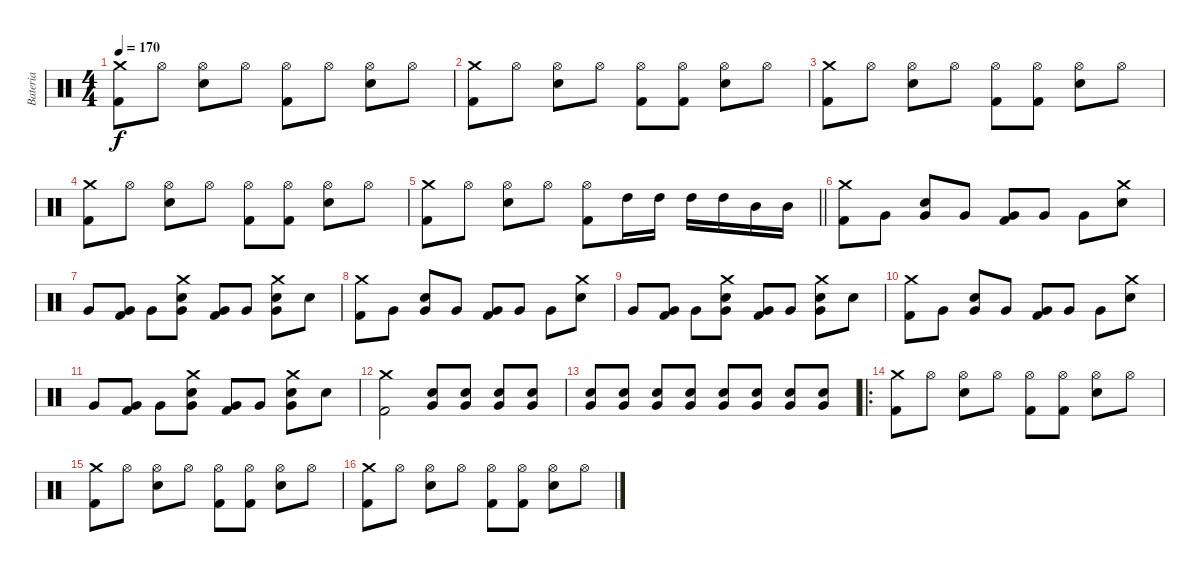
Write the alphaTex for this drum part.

\track ("Bateria" "Bateria") {instrument percussion}
\staff {score}
\articulation defaults
\ts (4 4)
\tempo 170
\clef neutral
\ks c
("Crash medium (hit)" "Kick (hit) 2").8{dy f} "Hi-Hat (open)".8 ("Hi-Hat (open)" "Snare (hit) 2").8 "Hi-Hat (open)".8 ("Hi-Hat (open)" "Kick (hit) 2").8 "Hi-Hat (open)".8 ("Hi-Hat (open)" "Snare (hit) 2").8 "Hi-Hat (open)".8 |
("Crash medium (hit)" "Kick (hit) 2").8 "Hi-Hat (open)".8 ("Hi-Hat (open)" "Snare (hit) 2").8 "Hi-Hat (open)".8 ("Hi-Hat (open)" "Kick (hit) 2").8 ("Hi-Hat (open)" "Kick (hit) 2").8 ("Hi-Hat (open)" "Snare (hit) 2").8 "Hi-Hat (open)".8 |
("Crash medium (hit)" "Kick (hit) 2").8 "Hi-Hat (open)".8 ("Hi-Hat (open)" "Snare (hit) 2").8 "Hi-Hat (open)".8 ("Hi-Hat (open)" "Kick (hit) 2").8 ("Hi-Hat (open)" "Kick (hit) 2").8 ("Hi-Hat (open)" "Snare (hit) 2").8 "Hi-Hat (open)".8 |
("Crash medium (hit)" "Kick (hit) 2").8 "Hi-Hat (open)".8 ("Hi-Hat (open)" "Snare (hit) 2").8 "Hi-Hat (open)".8 ("Hi-Hat (open)" "Kick (hit) 2").8 ("Hi-Hat (open)" "Kick (hit) 2").8 ("Hi-Hat (open)" "Snare (hit) 2").8 "Hi-Hat (open)".8 |
\barLineRight lightlight
("Crash medium (hit)" "Kick (hit) 2").8 "Hi-Hat (open)".8 ("Hi-Hat (open)" "Snare (hit) 2").8 "Hi-Hat (open)".8 ("Hi-Hat (open)" "Kick (hit) 2").8 "High Tom (hit)".16 "High Tom (hit)".16 "High Tom (hit)".16 "High Tom (hit)".16 "Mid Tom (hit)".16 "Mid Tom (hit)".16 |
("Crash medium (hit)" "Kick (hit) 2").8 "Very Low Tom (hit)".8 ("Very Low Tom (hit)" "Snare (hit) 2").8 "Very Low Tom (hit)".8 ("Very Low Tom (hit)" "Kick (hit) 2").8 "Very Low Tom (hit)".8 "Very Low Tom (hit)".8 ("Crash medium (hit)" "Snare (hit) 2").8 |
"Very Low Tom (hit)".8 ("Very Low Tom (hit)" "Kick (hit) 2").8 "Very Low Tom (hit)".8 ("Crash medium (hit)" "Very Low Tom (hit)" "Snare (hit) 2").8 ("Very Low Tom (hit)" "Kick (hit) 2").8 "Very Low Tom (hit)".8 ("Crash medium (hit)" "Very Low Tom (hit)" "Snare (hit) 2").8 "Snare (hit) 2".8 |
("Crash medium (hit)" "Kick (hit) 2").8 "Very Low Tom (hit)".8 ("Very Low Tom (hit)" "Snare (hit) 2").8 "Very Low Tom (hit)".8 ("Very Low Tom (hit)" "Kick (hit) 2").8 "Very Low Tom (hit)".8 "Very Low Tom (hit)".8 ("Crash medium (hit)" "Snare (hit) 2").8 |
"Very Low Tom (hit)".8 ("Very Low Tom (hit)" "Kick (hit) 2").8 "Very Low Tom (hit)".8 ("Crash medium (hit)" "Very Low Tom (hit)" "Snare (hit) 2").8 ("Very Low Tom (hit)" "Kick (hit) 2").8 "Very Low Tom (hit)".8 ("Crash medium (hit)" "Very Low Tom (hit)" "Snare (hit) 2").8 "Snare (hit) 2".8 |
("Crash medium (hit)" "Kick (hit) 2").8 "Very Low Tom (hit)".8 ("Very Low Tom (hit)" "Snare (hit) 2").8 "Very Low Tom (hit)".8 ("Very Low Tom (hit)" "Kick (hit) 2").8 "Very Low Tom (hit)".8 "Very Low Tom (hit)".8 ("Crash medium (hit)" "Snare (hit) 2").8 |
"Very Low Tom (hit)".8 ("Very Low Tom (hit)" "Kick (hit) 2").8 "Very Low Tom (hit)".8 ("Crash medium (hit)" "Very Low Tom (hit)" "Snare (hit) 2").8 ("Very Low Tom (hit)" "Kick (hit) 2").8 "Very Low Tom (hit)".8 ("Crash medium (hit)" "Very Low Tom (hit)" "Snare (hit) 2").8 "Snare (hit) 2".8 |
("Crash medium (hit)" "Kick (hit) 2").2 ("Very Low Tom (hit)" "Snare (hit) 2").8{volume 5} ("Very Low Tom (hit)" "Snare (hit) 2").8{volume 16} ("Very Low Tom (hit)" "Snare (hit) 2").8 ("Very Low Tom (hit)" "Snare (hit) 2").8 |
("Very Low Tom (hit)" "Snare (hit) 2").8 ("Very Low Tom (hit)" "Snare (hit) 2").8 ("Very Low Tom (hit)" "Snare (hit) 2").8 ("Very Low Tom (hit)" "Snare (hit) 2").8 ("Very Low Tom (hit)" "Snare (hit) 2").8 ("Very Low Tom (hit)" "Snare (hit) 2").8 ("Very Low Tom (hit)" "Snare (hit) 2").8 ("Very Low Tom (hit)" "Snare (hit) 2").8 |
\ro
("Crash medium (hit)" "Kick (hit) 2").8 "Hi-Hat (open)".8 ("Hi-Hat (open)" "Snare (hit) 2").8 "Hi-Hat (open)".8 ("Hi-Hat (open)" "Kick (hit) 2").8 ("Hi-Hat (open)" "Kick (hit) 2").8 ("Hi-Hat (open)" "Snare (hit) 2").8 "Hi-Hat (open)".8 |
("Crash medium (hit)" "Kick (hit) 2").8 "Hi-Hat (open)".8 ("Hi-Hat (open)" "Snare (hit) 2").8 "Hi-Hat (open)".8 ("Hi-Hat (open)" "Kick (hit) 2").8 ("Hi-Hat (open)" "Kick (hit) 2").8 ("Hi-Hat (open)" "Snare (hit) 2").8 "Hi-Hat (open)".8 |
("Crash medium (hit)" "Kick (hit) 2").8 "Hi-Hat (open)".8 ("Hi-Hat (open)" "Snare (hit) 2").8 "Hi-Hat (open)".8 ("Hi-Hat (open)" "Kick (hit) 2").8 ("Hi-Hat (open)" "Kick (hit) 2").8 ("Hi-Hat (open)" "Snare (hit) 2").8 "Hi-Hat (open)".8
